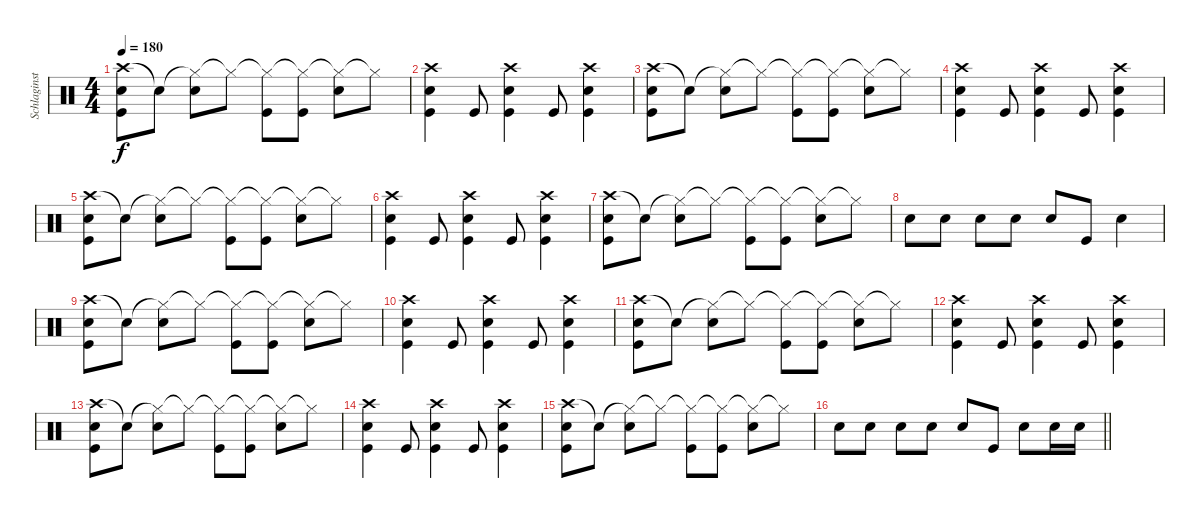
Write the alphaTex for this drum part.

\track ("Schlaginstrumente - Auswahl" "Schlaginst") {instrument percussion}
\staff {score}
\articulation defaults
\ts (4 4)
\tempo 180
\clef neutral
\ks c
("Crash high (hit)" "Electric Snare (hit)" "Kick (hit)").8{dy f} "Snare (hit)"{t}.8 ("Hi-Hat (closed)"{t} "Electric Snare (hit)").8 "Hi-Hat (closed)"{t}.8 ("Hi-Hat (closed)"{t} "Kick (hit)").8 ("Hi-Hat (closed)"{t} "Kick (hit)").8 ("Hi-Hat (closed)"{t} "Electric Snare (hit)").8 "Hi-Hat (closed)"{t}.8 |
("Crash high (hit)" "Electric Snare (hit)" "Kick (hit)").4 "Kick (hit)".8 ("Crash high (hit)" "Electric Snare (hit)" "Kick (hit)").4 "Kick (hit)".8 ("Crash high (hit)" "Electric Snare (hit)" "Kick (hit)").4 |
("Crash high (hit)" "Electric Snare (hit)" "Kick (hit)").8 "Snare (hit)"{t}.8 ("Hi-Hat (closed)"{t} "Electric Snare (hit)").8 "Hi-Hat (closed)"{t}.8 ("Hi-Hat (closed)"{t} "Kick (hit)").8 ("Hi-Hat (closed)"{t} "Kick (hit)").8 ("Hi-Hat (closed)"{t} "Electric Snare (hit)").8 "Hi-Hat (closed)"{t}.8 |
("Crash high (hit)" "Electric Snare (hit)" "Kick (hit)").4 "Kick (hit)".8 ("Crash high (hit)" "Electric Snare (hit)" "Kick (hit)").4 "Kick (hit)".8 ("Crash high (hit)" "Electric Snare (hit)" "Kick (hit)").4 |
("Crash high (hit)" "Electric Snare (hit)" "Kick (hit)").8 "Snare (hit)"{t}.8 ("Hi-Hat (closed)"{t} "Electric Snare (hit)").8 "Hi-Hat (closed)"{t}.8 ("Hi-Hat (closed)"{t} "Kick (hit)").8 ("Hi-Hat (closed)"{t} "Kick (hit)").8 ("Hi-Hat (closed)"{t} "Electric Snare (hit)").8 "Hi-Hat (closed)"{t}.8 |
("Crash high (hit)" "Electric Snare (hit)" "Kick (hit)").4 "Kick (hit)".8 ("Crash high (hit)" "Electric Snare (hit)" "Kick (hit)").4 "Kick (hit)".8 ("Crash high (hit)" "Electric Snare (hit)" "Kick (hit)").4 |
("Crash high (hit)" "Electric Snare (hit)" "Kick (hit)").8 "Snare (hit)"{t}.8 ("Hi-Hat (closed)"{t} "Electric Snare (hit)").8 "Hi-Hat (closed)"{t}.8 ("Hi-Hat (closed)"{t} "Kick (hit)").8 ("Hi-Hat (closed)"{t} "Kick (hit)").8 ("Hi-Hat (closed)"{t} "Electric Snare (hit)").8 "Hi-Hat (closed)"{t}.8 |
"Electric Snare (hit)".8 "Electric Snare (hit)".8 "Electric Snare (hit)".8 "Electric Snare (hit)".8 "Electric Snare (hit)".8 "Kick (hit)".8 "Electric Snare (hit)".4 |
("Crash high (hit)" "Electric Snare (hit)" "Kick (hit)").8 "Snare (hit)"{t}.8 ("Hi-Hat (closed)"{t} "Electric Snare (hit)").8 "Hi-Hat (closed)"{t}.8 ("Hi-Hat (closed)"{t} "Kick (hit)").8 ("Hi-Hat (closed)"{t} "Kick (hit)").8 ("Hi-Hat (closed)"{t} "Electric Snare (hit)").8 "Hi-Hat (closed)"{t}.8 |
("Crash high (hit)" "Electric Snare (hit)" "Kick (hit)").4 "Kick (hit)".8 ("Crash high (hit)" "Electric Snare (hit)" "Kick (hit)").4 "Kick (hit)".8 ("Crash high (hit)" "Electric Snare (hit)" "Kick (hit)").4 |
("Crash high (hit)" "Electric Snare (hit)" "Kick (hit)").8 "Snare (hit)"{t}.8 ("Hi-Hat (closed)"{t} "Electric Snare (hit)").8 "Hi-Hat (closed)"{t}.8 ("Hi-Hat (closed)"{t} "Kick (hit)").8 ("Hi-Hat (closed)"{t} "Kick (hit)").8 ("Hi-Hat (closed)"{t} "Electric Snare (hit)").8 "Hi-Hat (closed)"{t}.8 |
("Crash high (hit)" "Electric Snare (hit)" "Kick (hit)").4 "Kick (hit)".8 ("Crash high (hit)" "Electric Snare (hit)" "Kick (hit)").4 "Kick (hit)".8 ("Crash high (hit)" "Electric Snare (hit)" "Kick (hit)").4 |
("Crash high (hit)" "Electric Snare (hit)" "Kick (hit)").8 "Snare (hit)"{t}.8 ("Hi-Hat (closed)"{t} "Electric Snare (hit)").8 "Hi-Hat (closed)"{t}.8 ("Hi-Hat (closed)"{t} "Kick (hit)").8 ("Hi-Hat (closed)"{t} "Kick (hit)").8 ("Hi-Hat (closed)"{t} "Electric Snare (hit)").8 "Hi-Hat (closed)"{t}.8 |
("Crash high (hit)" "Electric Snare (hit)" "Kick (hit)").4 "Kick (hit)".8 ("Crash high (hit)" "Electric Snare (hit)" "Kick (hit)").4 "Kick (hit)".8 ("Crash high (hit)" "Electric Snare (hit)" "Kick (hit)").4 |
("Crash high (hit)" "Electric Snare (hit)" "Kick (hit)").8 "Snare (hit)"{t}.8 ("Hi-Hat (closed)"{t} "Electric Snare (hit)").8 "Hi-Hat (closed)"{t}.8 ("Hi-Hat (closed)"{t} "Kick (hit)").8 ("Hi-Hat (closed)"{t} "Kick (hit)").8 ("Hi-Hat (closed)"{t} "Electric Snare (hit)").8 "Hi-Hat (closed)"{t}.8 |
\barLineRight lightlight "Electric Snare (hit)".8 "Electric Snare (hit)".8 "Electric Snare (hit)".8 "Electric Snare (hit)".8 "Electric Snare (hit)".8 "Kick (hit)".8 "Electric Snare (hit)".8 "Electric Snare (hit)".16 "Electric Snare (hit)".16
